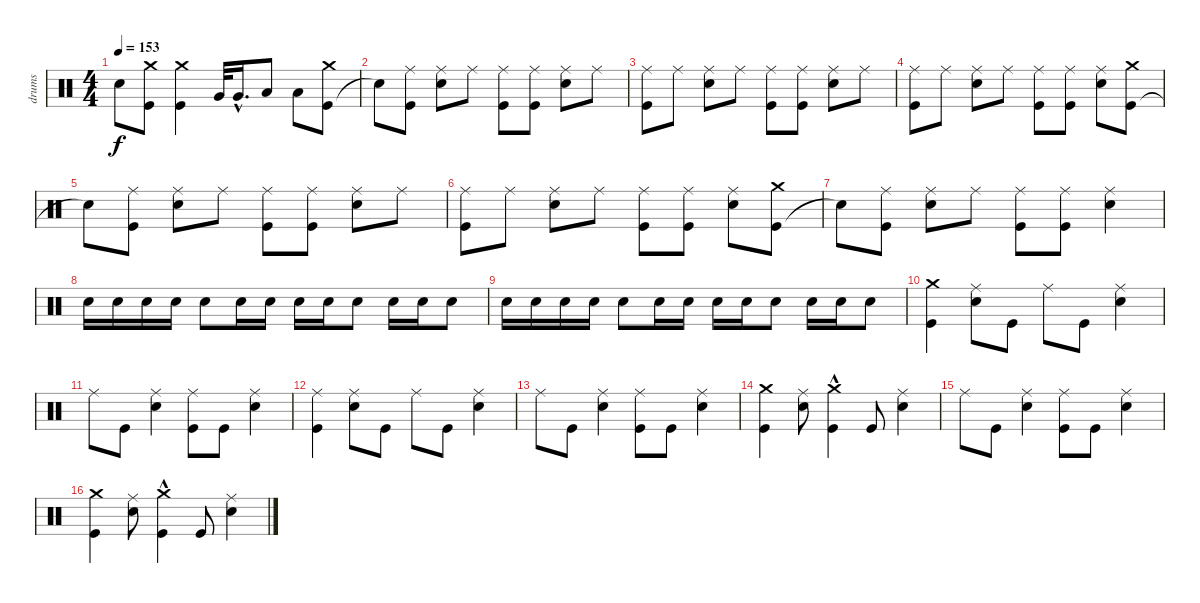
\track ("drums" "drums") {instrument percussion}
\staff {score}
\articulation defaults
\ts (4 4)
\tempo 153
\clef neutral
\ks c "Snare (hit)"{t}.8{dy f}
("Kick (hit)" "Crash medium (hit)").8 ("Kick (hit)" "Crash medium (hit)").4 "Very Low Tom (hit)".32 "Very Low Tom (hit)"{hac}.16{d} "Low Floor Tom (hit)".8 "Low Floor Tom (hit)".8 ("Kick (hit)" "Crash medium (hit)").8 |
"Snare (hit)"{t}.8 ("Kick (hit)" "Ride (middle)").8 ("Ride (middle)" "Snare (hit) 2").8 "Ride (middle)".8 ("Kick (hit)" "Ride (middle)").8 ("Kick (hit)" "Ride (middle)").8 ("Ride (middle)" "Snare (hit) 2").8 "Ride (middle)".8 |
("Ride (middle)" "Kick (hit)").8 "Ride (middle)".8 ("Ride (middle)" "Snare (hit) 2").8 "Ride (middle)".8 ("Kick (hit)" "Ride (middle)").8 ("Kick (hit)" "Ride (middle)").8 ("Ride (middle)" "Snare (hit) 2").8 "Ride (middle)".8 |
("Ride (middle)" "Kick (hit)").8 "Ride (middle)".8 ("Ride (middle)" "Snare (hit) 2").8 "Ride (middle)".8 ("Kick (hit)" "Ride (middle)").8 ("Kick (hit)" "Ride (middle)").8 ("Ride (middle)" "Snare (hit) 2").8 ("Kick (hit)" "Crash medium (hit)").8 |
"Snare (hit)"{t}.8 ("Kick (hit)" "Ride (middle)").8 ("Ride (middle)" "Snare (hit) 2").8 "Ride (middle)".8 ("Kick (hit)" "Ride (middle)").8 ("Kick (hit)" "Ride (middle)").8 ("Ride (middle)" "Snare (hit) 2").8 "Ride (middle)".8 |
("Ride (middle)" "Kick (hit)").8 "Ride (middle)".8 ("Ride (middle)" "Snare (hit) 2").8 "Ride (middle)".8 ("Kick (hit)" "Ride (middle)").8 ("Kick (hit)" "Ride (middle)").8 ("Ride (middle)" "Snare (hit) 2").8 ("Kick (hit)" "Crash medium (hit)").8 |
"Snare (hit)"{t}.8 ("Kick (hit)" "Ride (middle)").8 ("Ride (middle)" "Snare (hit) 2").8 "Ride (middle)".8 ("Kick (hit)" "Ride (middle)").8 ("Kick (hit)" "Ride (middle)").8 ("Snare (hit) 2" "Ride (middle)").4 |
"Snare (hit) 2".16 "Snare (hit) 2".16 "Snare (hit) 2".16 "Snare (hit) 2".16 "Snare (hit) 2".8 "Snare (hit) 2".16 "Snare (hit) 2".16 "Snare (hit) 2".16 "Snare (hit) 2".16 "Snare (hit) 2".8 "Snare (hit) 2".16 "Snare (hit) 2".16 "Snare (hit) 2".8 |
"Snare (hit) 2".16 "Snare (hit) 2".16 "Snare (hit) 2".16 "Snare (hit) 2".16 "Snare (hit) 2".8 "Snare (hit) 2".16 "Snare (hit) 2".16 "Snare (hit) 2".16 "Snare (hit) 2".16 "Snare (hit) 2".8 "Snare (hit) 2".16 "Snare (hit) 2".16 "Snare (hit) 2".8 |
("Kick (hit)" "Crash medium (hit)").4 ("Ride (middle)" "Snare (hit) 2").8 "Kick (hit)".8 "Ride (middle)".8 "Kick (hit)".8 ("Ride (middle)" "Snare (hit) 2").4 |
"Ride (middle)".8 "Kick (hit)".8 ("Ride (middle)" "Snare (hit) 2").4 ("Kick (hit)" "Ride (middle)").8 "Kick (hit)".8 ("Ride (middle)" "Snare (hit) 2").4 |
("Kick (hit)" "Ride (middle)").4 ("Ride (middle)" "Snare (hit) 2").8 "Kick (hit)".8 "Ride (middle)".8 "Kick (hit)".8 ("Ride (middle)" "Snare (hit) 2").4 |
"Ride (middle)".8 "Kick (hit)".8 ("Ride (middle)" "Snare (hit) 2").4 ("Kick (hit)" "Ride (middle)").8 "Kick (hit)".8 ("Ride (middle)" "Snare (hit) 2").4 |
("Kick (hit)" "Crash medium (hit)").4 ("Ride (middle)" "Snare (hit) 2").8 ("Crash medium (hit)"{hac} "Kick (hit)").4 "Kick (hit)".8 ("Ride (middle)" "Snare (hit) 2").4 |
"Ride (middle)".8 "Kick (hit)".8 ("Snare (hit) 2" "Ride (middle)").4 ("Ride (middle)" "Kick (hit)").8 "Kick (hit)".8 ("Snare (hit) 2" "Ride (middle)").4 |
("Kick (hit)" "Crash medium (hit)").4 ("Ride (middle)" "Snare (hit) 2").8 ("Crash medium (hit)"{hac} "Kick (hit)").4 "Kick (hit)".8 ("Ride (middle)" "Snare (hit) 2").4
